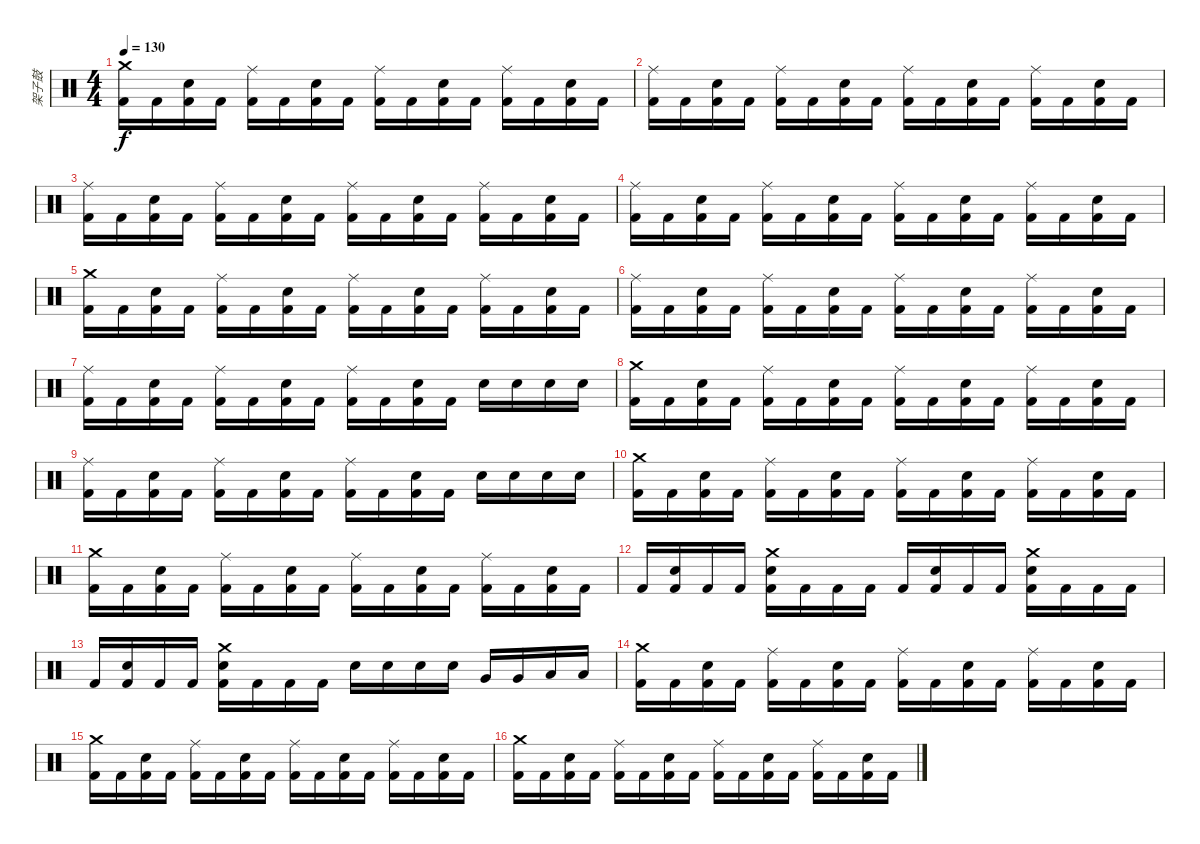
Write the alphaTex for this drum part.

\track ("架子鼓" "架子鼓") {instrument percussion}
\staff {score}
\articulation defaults
\ts (4 4)
\tempo 130
\clef neutral
\ks c
("Crash medium (hit)" "Kick (hit) 2").16{dy f} "Kick (hit) 2".16 ("Snare (hit) 2" "Kick (hit) 2").16 "Kick (hit) 2".16 ("Ride (middle)" "Kick (hit) 2").16 "Kick (hit) 2".16 ("Snare (hit) 2" "Kick (hit) 2").16 "Kick (hit) 2".16 ("Ride (middle)" "Kick (hit) 2").16 "Kick (hit) 2".16 ("Snare (hit) 2" "Kick (hit) 2").16 "Kick (hit) 2".16 ("Ride (middle)" "Kick (hit) 2").16 "Kick (hit) 2".16 ("Snare (hit) 2" "Kick (hit) 2").16 "Kick (hit) 2".16 |
("Ride (middle)" "Kick (hit) 2").16 "Kick (hit) 2".16 ("Snare (hit) 2" "Kick (hit) 2").16 "Kick (hit) 2".16 ("Ride (middle)" "Kick (hit) 2").16 "Kick (hit) 2".16 ("Snare (hit) 2" "Kick (hit) 2").16 "Kick (hit) 2".16 ("Ride (middle)" "Kick (hit) 2").16 "Kick (hit) 2".16 ("Snare (hit) 2" "Kick (hit) 2").16 "Kick (hit) 2".16 ("Ride (middle)" "Kick (hit) 2").16 "Kick (hit) 2".16 ("Snare (hit) 2" "Kick (hit) 2").16 "Kick (hit) 2".16 |
("Ride (middle)" "Kick (hit) 2").16 "Kick (hit) 2".16 ("Snare (hit) 2" "Kick (hit) 2").16 "Kick (hit) 2".16 ("Ride (middle)" "Kick (hit) 2").16 "Kick (hit) 2".16 ("Snare (hit) 2" "Kick (hit) 2").16 "Kick (hit) 2".16 ("Ride (middle)" "Kick (hit) 2").16 "Kick (hit) 2".16 ("Snare (hit) 2" "Kick (hit) 2").16 "Kick (hit) 2".16 ("Ride (middle)" "Kick (hit) 2").16 "Kick (hit) 2".16 ("Snare (hit) 2" "Kick (hit) 2").16 "Kick (hit) 2".16 |
("Ride (middle)" "Kick (hit) 2").16 "Kick (hit) 2".16 ("Snare (hit) 2" "Kick (hit) 2").16 "Kick (hit) 2".16 ("Ride (middle)" "Kick (hit) 2").16 "Kick (hit) 2".16 ("Snare (hit) 2" "Kick (hit) 2").16 "Kick (hit) 2".16 ("Ride (middle)" "Kick (hit) 2").16 "Kick (hit) 2".16 ("Snare (hit) 2" "Kick (hit) 2").16 "Kick (hit) 2".16 ("Ride (middle)" "Kick (hit) 2").16 "Kick (hit) 2".16 ("Snare (hit) 2" "Kick (hit) 2").16 "Kick (hit) 2".16 |
("Crash medium (hit)" "Kick (hit) 2").16 "Kick (hit) 2".16 ("Snare (hit) 2" "Kick (hit) 2").16 "Kick (hit) 2".16 ("Ride (middle)" "Kick (hit) 2").16 "Kick (hit) 2".16 ("Snare (hit) 2" "Kick (hit) 2").16 "Kick (hit) 2".16 ("Ride (middle)" "Kick (hit) 2").16 "Kick (hit) 2".16 ("Snare (hit) 2" "Kick (hit) 2").16 "Kick (hit) 2".16 ("Ride (middle)" "Kick (hit) 2").16 "Kick (hit) 2".16 ("Snare (hit) 2" "Kick (hit) 2").16 "Kick (hit) 2".16 |
("Ride (middle)" "Kick (hit) 2").16 "Kick (hit) 2".16 ("Snare (hit) 2" "Kick (hit) 2").16 "Kick (hit) 2".16 ("Ride (middle)" "Kick (hit) 2").16 "Kick (hit) 2".16 ("Snare (hit) 2" "Kick (hit) 2").16 "Kick (hit) 2".16 ("Ride (middle)" "Kick (hit) 2").16 "Kick (hit) 2".16 ("Snare (hit) 2" "Kick (hit) 2").16 "Kick (hit) 2".16 ("Ride (middle)" "Kick (hit) 2").16 "Kick (hit) 2".16 ("Snare (hit) 2" "Kick (hit) 2").16 "Kick (hit) 2".16 |
("Ride (middle)" "Kick (hit) 2").16 "Kick (hit) 2".16 ("Snare (hit) 2" "Kick (hit) 2").16 "Kick (hit) 2".16 ("Ride (middle)" "Kick (hit) 2").16 "Kick (hit) 2".16 ("Snare (hit) 2" "Kick (hit) 2").16 "Kick (hit) 2".16 ("Ride (middle)" "Kick (hit) 2").16 "Kick (hit) 2".16 ("Snare (hit) 2" "Kick (hit) 2").16 "Kick (hit) 2".16 "Snare (hit) 2".16 "Snare (hit) 2".16 "Snare (hit) 2".16 "Snare (hit) 2".16 |
("Crash medium (hit)" "Kick (hit) 2").16 "Kick (hit) 2".16 ("Snare (hit) 2" "Kick (hit) 2").16 "Kick (hit) 2".16 ("Ride (middle)" "Kick (hit) 2").16 "Kick (hit) 2".16 ("Snare (hit) 2" "Kick (hit) 2").16 "Kick (hit) 2".16 ("Ride (middle)" "Kick (hit) 2").16 "Kick (hit) 2".16 ("Snare (hit) 2" "Kick (hit) 2").16 "Kick (hit) 2".16 ("Ride (middle)" "Kick (hit) 2").16 "Kick (hit) 2".16 ("Snare (hit) 2" "Kick (hit) 2").16 "Kick (hit) 2".16 |
("Ride (middle)" "Kick (hit) 2").16 "Kick (hit) 2".16 ("Snare (hit) 2" "Kick (hit) 2").16 "Kick (hit) 2".16 ("Ride (middle)" "Kick (hit) 2").16 "Kick (hit) 2".16 ("Snare (hit) 2" "Kick (hit) 2").16 "Kick (hit) 2".16 ("Ride (middle)" "Kick (hit) 2").16 "Kick (hit) 2".16 ("Snare (hit) 2" "Kick (hit) 2").16 "Kick (hit) 2".16 "Snare (hit) 2".16 "Snare (hit) 2".16 "Snare (hit) 2".16 "Snare (hit) 2".16 |
("Crash medium (hit)" "Kick (hit) 2").16 "Kick (hit) 2".16 ("Snare (hit) 2" "Kick (hit) 2").16 "Kick (hit) 2".16 ("Ride (middle)" "Kick (hit) 2").16 "Kick (hit) 2".16 ("Snare (hit) 2" "Kick (hit) 2").16 "Kick (hit) 2".16 ("Ride (middle)" "Kick (hit) 2").16 "Kick (hit) 2".16 ("Snare (hit) 2" "Kick (hit) 2").16 "Kick (hit) 2".16 ("Ride (middle)" "Kick (hit) 2").16 "Kick (hit) 2".16 ("Snare (hit) 2" "Kick (hit) 2").16 "Kick (hit) 2".16 |
("Crash medium (hit)" "Kick (hit) 2").16 "Kick (hit) 2".16 ("Snare (hit) 2" "Kick (hit) 2").16 "Kick (hit) 2".16 ("Ride (middle)" "Kick (hit) 2").16 "Kick (hit) 2".16 ("Snare (hit) 2" "Kick (hit) 2").16 "Kick (hit) 2".16 ("Ride (middle)" "Kick (hit) 2").16 "Kick (hit) 2".16 ("Snare (hit) 2" "Kick (hit) 2").16 "Kick (hit) 2".16 ("Ride (middle)" "Kick (hit) 2").16 "Kick (hit) 2".16 ("Snare (hit) 2" "Kick (hit) 2").16 "Kick (hit) 2".16 |
"Kick (hit) 2".16 ("Snare (hit) 2" "Kick (hit) 2").16 "Kick (hit) 2".16 "Kick (hit) 2".16 ("Crash medium (hit)" "Snare (hit) 2" "Kick (hit) 2").16 "Kick (hit) 2".16 "Kick (hit) 2".16 "Kick (hit) 2".16 "Kick (hit) 2".16 ("Snare (hit) 2" "Kick (hit) 2").16 "Kick (hit) 2".16 "Kick (hit) 2".16 ("Crash medium (hit)" "Snare (hit) 2" "Kick (hit) 2").16 "Kick (hit) 2".16 "Kick (hit) 2".16 "Kick (hit) 2".16 |
"Kick (hit) 2".16 ("Snare (hit) 2" "Kick (hit) 2").16 "Kick (hit) 2".16 "Kick (hit) 2".16 ("Crash medium (hit)" "Snare (hit) 2" "Kick (hit) 2").16 "Kick (hit) 2".16 "Kick (hit) 2".16 "Kick (hit) 2".16 "Snare (hit) 2".16 "Snare (hit) 2".16 "Snare (hit) 2".16 "Snare (hit) 2".16 "Very Low Tom (hit)".16 "Very Low Tom (hit)".16 "Low Floor Tom (hit)".16 "Low Floor Tom (hit)".16 |
("Crash medium (hit)" "Kick (hit) 2").16 "Kick (hit) 2".16 ("Snare (hit) 2" "Kick (hit) 2").16 "Kick (hit) 2".16 ("Ride (middle)" "Kick (hit) 2").16 "Kick (hit) 2".16 ("Snare (hit) 2" "Kick (hit) 2").16 "Kick (hit) 2".16 ("Ride (middle)" "Kick (hit) 2").16 "Kick (hit) 2".16 ("Snare (hit) 2" "Kick (hit) 2").16 "Kick (hit) 2".16 ("Ride (middle)" "Kick (hit) 2").16 "Kick (hit) 2".16 ("Snare (hit) 2" "Kick (hit) 2").16 "Kick (hit) 2".16 |
("Crash medium (hit)" "Kick (hit) 2").16 "Kick (hit) 2".16 ("Snare (hit) 2" "Kick (hit) 2").16 "Kick (hit) 2".16 ("Ride (middle)" "Kick (hit) 2").16 "Kick (hit) 2".16 ("Snare (hit) 2" "Kick (hit) 2").16 "Kick (hit) 2".16 ("Ride (middle)" "Kick (hit) 2").16 "Kick (hit) 2".16 ("Snare (hit) 2" "Kick (hit) 2").16 "Kick (hit) 2".16 ("Ride (middle)" "Kick (hit) 2").16 "Kick (hit) 2".16 ("Snare (hit) 2" "Kick (hit) 2").16 "Kick (hit) 2".16 |
("Crash medium (hit)" "Kick (hit) 2").16 "Kick (hit) 2".16 ("Snare (hit) 2" "Kick (hit) 2").16 "Kick (hit) 2".16 ("Ride (middle)" "Kick (hit) 2").16 "Kick (hit) 2".16 ("Snare (hit) 2" "Kick (hit) 2").16 "Kick (hit) 2".16 ("Ride (middle)" "Kick (hit) 2").16 "Kick (hit) 2".16 ("Snare (hit) 2" "Kick (hit) 2").16 "Kick (hit) 2".16 ("Ride (middle)" "Kick (hit) 2").16 "Kick (hit) 2".16 ("Snare (hit) 2" "Kick (hit) 2").16 "Kick (hit) 2".16
